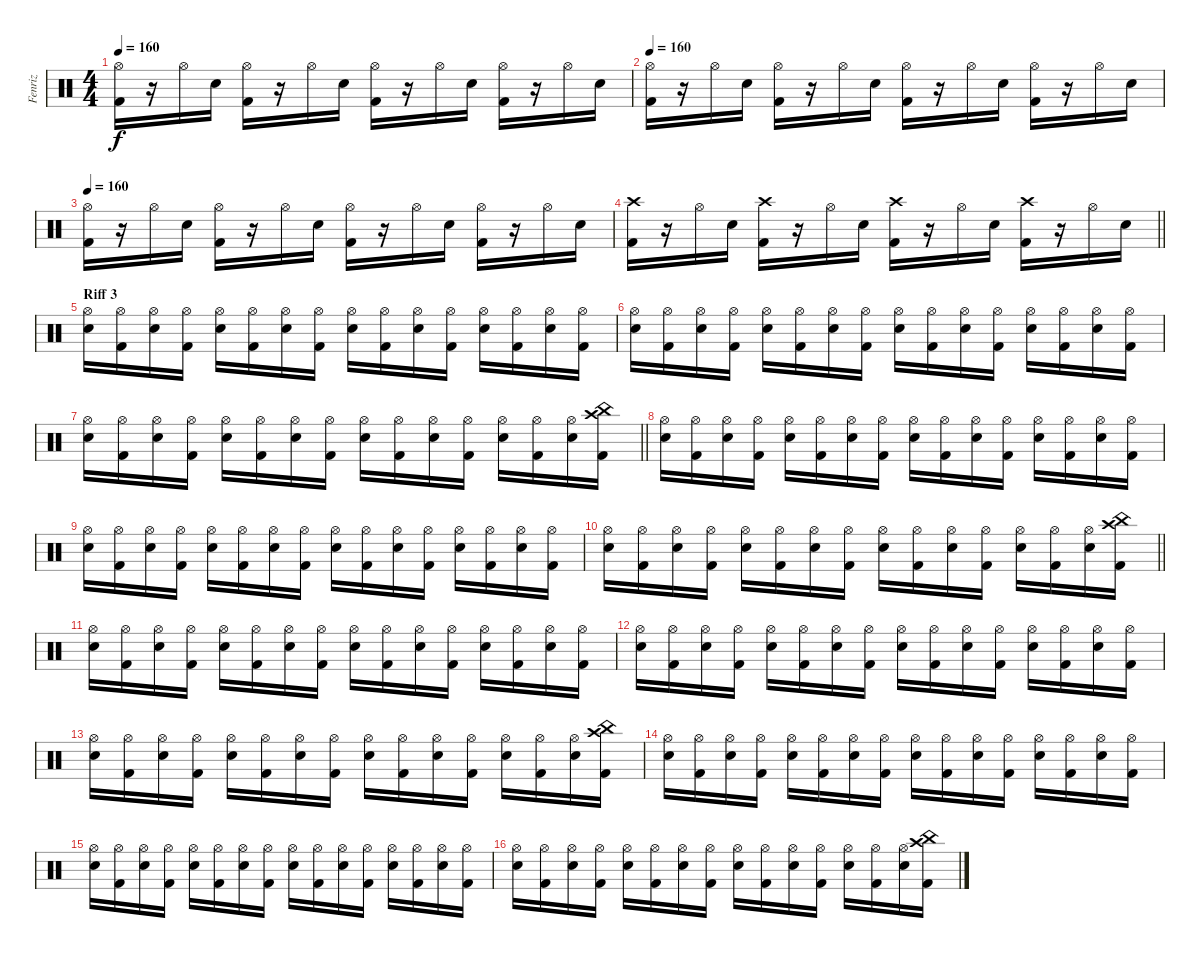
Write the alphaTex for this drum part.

\track ("Fenriz" "Fenriz") {instrument percussion}
\staff {score}
\articulation defaults
\ts (4 4)
\tempo 160
\clef neutral
\ks c
("Hi-Hat (open)" "Kick (hit) 2").16{dy f} r.16 "Hi-Hat (open)".16 "Electric Snare (hit)".16 ("Hi-Hat (open)" "Kick (hit) 2").16 r.16 "Hi-Hat (open)".16 "Electric Snare (hit)".16 ("Hi-Hat (open)" "Kick (hit) 2").16 r.16 "Hi-Hat (open)".16 "Electric Snare (hit)".16 ("Hi-Hat (open)" "Kick (hit) 2").16 r.16 "Hi-Hat (open)".16 "Electric Snare (hit)".16 |
\tempo 160
("Hi-Hat (open)" "Kick (hit) 2").16 r.16 "Hi-Hat (open)".16 "Electric Snare (hit)".16 ("Hi-Hat (open)" "Kick (hit) 2").16 r.16 "Hi-Hat (open)".16 "Electric Snare (hit)".16 ("Hi-Hat (open)" "Kick (hit) 2").16 r.16 "Hi-Hat (open)".16 "Electric Snare (hit)".16 ("Hi-Hat (open)" "Kick (hit) 2").16 r.16 "Hi-Hat (open)".16 "Electric Snare (hit)".16 |
\tempo 160
("Hi-Hat (open)" "Kick (hit) 2").16 r.16 "Hi-Hat (open)".16 "Electric Snare (hit)".16 ("Hi-Hat (open)" "Kick (hit) 2").16 r.16 "Hi-Hat (open)".16 "Electric Snare (hit)".16 ("Hi-Hat (open)" "Kick (hit) 2").16 r.16 "Hi-Hat (open)".16 "Electric Snare (hit)".16 ("Hi-Hat (open)" "Kick (hit) 2").16 r.16 "Hi-Hat (open)".16 "Electric Snare (hit)".16 |
\barLineRight lightlight
("Crash high (hit)" "Kick (hit) 2").16 r.16 "Hi-Hat (open)".16 "Electric Snare (hit)".16 ("Crash high (hit)" "Kick (hit) 2").16 r.16 "Hi-Hat (open)".16 "Electric Snare (hit)".16 ("Crash high (hit)" "Kick (hit) 2").16 r.16 "Hi-Hat (open)".16 "Electric Snare (hit)".16 ("Crash high (hit)" "Kick (hit) 2").16 r.16 "Hi-Hat (open)".16 "Electric Snare (hit)".16 |
\section ("" "Riff 3")
("Hi-Hat (open)" "Electric Snare (hit)").16 ("Hi-Hat (open)" "Kick (hit) 2").16 ("Hi-Hat (open)" "Electric Snare (hit)").16 ("Hi-Hat (open)" "Kick (hit) 2").16 ("Hi-Hat (open)" "Electric Snare (hit)").16 ("Hi-Hat (open)" "Kick (hit) 2").16 ("Hi-Hat (open)" "Electric Snare (hit)").16 ("Hi-Hat (open)" "Kick (hit) 2").16 ("Hi-Hat (open)" "Electric Snare (hit)").16 ("Hi-Hat (open)" "Kick (hit) 2").16 ("Hi-Hat (open)" "Electric Snare (hit)").16 ("Hi-Hat (open)" "Kick (hit) 2").16 ("Hi-Hat (open)" "Electric Snare (hit)").16 ("Hi-Hat (open)" "Kick (hit) 2").16 ("Hi-Hat (open)" "Electric Snare (hit)").16 ("Hi-Hat (open)" "Kick (hit) 2").16 |
("Hi-Hat (open)" "Electric Snare (hit)").16 ("Hi-Hat (open)" "Kick (hit) 2").16 ("Hi-Hat (open)" "Electric Snare (hit)").16 ("Hi-Hat (open)" "Kick (hit) 2").16 ("Hi-Hat (open)" "Electric Snare (hit)").16 ("Hi-Hat (open)" "Kick (hit) 2").16 ("Hi-Hat (open)" "Electric Snare (hit)").16 ("Hi-Hat (open)" "Kick (hit) 2").16 ("Hi-Hat (open)" "Electric Snare (hit)").16 ("Hi-Hat (open)" "Kick (hit) 2").16 ("Hi-Hat (open)" "Electric Snare (hit)").16 ("Hi-Hat (open)" "Kick (hit) 2").16 ("Hi-Hat (open)" "Electric Snare (hit)").16 ("Hi-Hat (open)" "Kick (hit) 2").16 ("Hi-Hat (open)" "Electric Snare (hit)").16 ("Hi-Hat (open)" "Kick (hit) 2").16 |
\barLineRight lightlight
("Hi-Hat (open)" "Electric Snare (hit)").16 ("Hi-Hat (open)" "Kick (hit) 2").16 ("Hi-Hat (open)" "Electric Snare (hit)").16 ("Hi-Hat (open)" "Kick (hit) 2").16 ("Hi-Hat (open)" "Electric Snare (hit)").16 ("Hi-Hat (open)" "Kick (hit) 2").16 ("Hi-Hat (open)" "Electric Snare (hit)").16 ("Hi-Hat (open)" "Kick (hit) 2").16 ("Hi-Hat (open)" "Electric Snare (hit)").16 ("Hi-Hat (open)" "Kick (hit) 2").16 ("Hi-Hat (open)" "Electric Snare (hit)").16 ("Hi-Hat (open)" "Kick (hit) 2").16 ("Hi-Hat (open)" "Electric Snare (hit)").16 ("Hi-Hat (open)" "Kick (hit) 2").16 ("Hi-Hat (open)" "Electric Snare (hit)").16 ("China (hit)" "Crash high (hit)" "Kick (hit) 2").16 |
("Hi-Hat (open)" "Electric Snare (hit)").16 ("Hi-Hat (open)" "Kick (hit) 2").16 ("Hi-Hat (open)" "Electric Snare (hit)").16 ("Hi-Hat (open)" "Kick (hit) 2").16 ("Hi-Hat (open)" "Electric Snare (hit)").16 ("Hi-Hat (open)" "Kick (hit) 2").16 ("Hi-Hat (open)" "Electric Snare (hit)").16 ("Hi-Hat (open)" "Kick (hit) 2").16 ("Hi-Hat (open)" "Electric Snare (hit)").16 ("Hi-Hat (open)" "Kick (hit) 2").16 ("Hi-Hat (open)" "Electric Snare (hit)").16 ("Hi-Hat (open)" "Kick (hit) 2").16 ("Hi-Hat (open)" "Electric Snare (hit)").16 ("Hi-Hat (open)" "Kick (hit) 2").16 ("Hi-Hat (open)" "Electric Snare (hit)").16 ("Hi-Hat (open)" "Kick (hit) 2").16 |
("Hi-Hat (open)" "Electric Snare (hit)").16 ("Hi-Hat (open)" "Kick (hit) 2").16 ("Hi-Hat (open)" "Electric Snare (hit)").16 ("Hi-Hat (open)" "Kick (hit) 2").16 ("Hi-Hat (open)" "Electric Snare (hit)").16 ("Hi-Hat (open)" "Kick (hit) 2").16 ("Hi-Hat (open)" "Electric Snare (hit)").16 ("Hi-Hat (open)" "Kick (hit) 2").16 ("Hi-Hat (open)" "Electric Snare (hit)").16 ("Hi-Hat (open)" "Kick (hit) 2").16 ("Hi-Hat (open)" "Electric Snare (hit)").16 ("Hi-Hat (open)" "Kick (hit) 2").16 ("Hi-Hat (open)" "Electric Snare (hit)").16 ("Hi-Hat (open)" "Kick (hit) 2").16 ("Hi-Hat (open)" "Electric Snare (hit)").16 ("Hi-Hat (open)" "Kick (hit) 2").16 |
\barLineRight lightlight
("Hi-Hat (open)" "Electric Snare (hit)").16 ("Hi-Hat (open)" "Kick (hit) 2").16 ("Hi-Hat (open)" "Electric Snare (hit)").16 ("Hi-Hat (open)" "Kick (hit) 2").16 ("Hi-Hat (open)" "Electric Snare (hit)").16 ("Hi-Hat (open)" "Kick (hit) 2").16 ("Hi-Hat (open)" "Electric Snare (hit)").16 ("Hi-Hat (open)" "Kick (hit) 2").16 ("Hi-Hat (open)" "Electric Snare (hit)").16 ("Hi-Hat (open)" "Kick (hit) 2").16 ("Hi-Hat (open)" "Electric Snare (hit)").16 ("Hi-Hat (open)" "Kick (hit) 2").16 ("Hi-Hat (open)" "Electric Snare (hit)").16 ("Hi-Hat (open)" "Kick (hit) 2").16 ("Hi-Hat (open)" "Electric Snare (hit)").16 ("China (hit)" "Crash high (hit)" "Kick (hit) 2").16 |
("Hi-Hat (open)" "Electric Snare (hit)").16 ("Hi-Hat (open)" "Kick (hit) 2").16 ("Hi-Hat (open)" "Electric Snare (hit)").16 ("Hi-Hat (open)" "Kick (hit) 2").16 ("Hi-Hat (open)" "Electric Snare (hit)").16 ("Hi-Hat (open)" "Kick (hit) 2").16 ("Hi-Hat (open)" "Electric Snare (hit)").16 ("Hi-Hat (open)" "Kick (hit) 2").16 ("Hi-Hat (open)" "Electric Snare (hit)").16 ("Hi-Hat (open)" "Kick (hit) 2").16 ("Hi-Hat (open)" "Electric Snare (hit)").16 ("Hi-Hat (open)" "Kick (hit) 2").16 ("Hi-Hat (open)" "Electric Snare (hit)").16 ("Hi-Hat (open)" "Kick (hit) 2").16 ("Hi-Hat (open)" "Electric Snare (hit)").16 ("Hi-Hat (open)" "Kick (hit) 2").16 |
("Hi-Hat (open)" "Electric Snare (hit)").16 ("Hi-Hat (open)" "Kick (hit) 2").16 ("Hi-Hat (open)" "Electric Snare (hit)").16 ("Hi-Hat (open)" "Kick (hit) 2").16 ("Hi-Hat (open)" "Electric Snare (hit)").16 ("Hi-Hat (open)" "Kick (hit) 2").16 ("Hi-Hat (open)" "Electric Snare (hit)").16 ("Hi-Hat (open)" "Kick (hit) 2").16 ("Hi-Hat (open)" "Electric Snare (hit)").16 ("Hi-Hat (open)" "Kick (hit) 2").16 ("Hi-Hat (open)" "Electric Snare (hit)").16 ("Hi-Hat (open)" "Kick (hit) 2").16 ("Hi-Hat (open)" "Electric Snare (hit)").16 ("Hi-Hat (open)" "Kick (hit) 2").16 ("Hi-Hat (open)" "Electric Snare (hit)").16 ("Hi-Hat (open)" "Kick (hit) 2").16 |
("Hi-Hat (open)" "Electric Snare (hit)").16 ("Hi-Hat (open)" "Kick (hit) 2").16 ("Hi-Hat (open)" "Electric Snare (hit)").16 ("Hi-Hat (open)" "Kick (hit) 2").16 ("Hi-Hat (open)" "Electric Snare (hit)").16 ("Hi-Hat (open)" "Kick (hit) 2").16 ("Hi-Hat (open)" "Electric Snare (hit)").16 ("Hi-Hat (open)" "Kick (hit) 2").16 ("Hi-Hat (open)" "Electric Snare (hit)").16 ("Hi-Hat (open)" "Kick (hit) 2").16 ("Hi-Hat (open)" "Electric Snare (hit)").16 ("Hi-Hat (open)" "Kick (hit) 2").16 ("Hi-Hat (open)" "Electric Snare (hit)").16 ("Hi-Hat (open)" "Kick (hit) 2").16 ("Hi-Hat (open)" "Electric Snare (hit)").16 ("China (hit)" "Crash high (hit)" "Kick (hit) 2").16 |
("Hi-Hat (open)" "Electric Snare (hit)").16 ("Hi-Hat (open)" "Kick (hit) 2").16 ("Hi-Hat (open)" "Electric Snare (hit)").16 ("Hi-Hat (open)" "Kick (hit) 2").16 ("Hi-Hat (open)" "Electric Snare (hit)").16 ("Hi-Hat (open)" "Kick (hit) 2").16 ("Hi-Hat (open)" "Electric Snare (hit)").16 ("Hi-Hat (open)" "Kick (hit) 2").16 ("Hi-Hat (open)" "Electric Snare (hit)").16 ("Hi-Hat (open)" "Kick (hit) 2").16 ("Hi-Hat (open)" "Electric Snare (hit)").16 ("Hi-Hat (open)" "Kick (hit) 2").16 ("Hi-Hat (open)" "Electric Snare (hit)").16 ("Hi-Hat (open)" "Kick (hit) 2").16 ("Hi-Hat (open)" "Electric Snare (hit)").16 ("Hi-Hat (open)" "Kick (hit) 2").16 |
("Hi-Hat (open)" "Electric Snare (hit)").16 ("Hi-Hat (open)" "Kick (hit) 2").16 ("Hi-Hat (open)" "Electric Snare (hit)").16 ("Hi-Hat (open)" "Kick (hit) 2").16 ("Hi-Hat (open)" "Electric Snare (hit)").16 ("Hi-Hat (open)" "Kick (hit) 2").16 ("Hi-Hat (open)" "Electric Snare (hit)").16 ("Hi-Hat (open)" "Kick (hit) 2").16 ("Hi-Hat (open)" "Electric Snare (hit)").16 ("Hi-Hat (open)" "Kick (hit) 2").16 ("Hi-Hat (open)" "Electric Snare (hit)").16 ("Hi-Hat (open)" "Kick (hit) 2").16 ("Hi-Hat (open)" "Electric Snare (hit)").16 ("Hi-Hat (open)" "Kick (hit) 2").16 ("Hi-Hat (open)" "Electric Snare (hit)").16 ("Hi-Hat (open)" "Kick (hit) 2").16 |
("Hi-Hat (open)" "Electric Snare (hit)").16 ("Hi-Hat (open)" "Kick (hit) 2").16 ("Hi-Hat (open)" "Electric Snare (hit)").16 ("Hi-Hat (open)" "Kick (hit) 2").16 ("Hi-Hat (open)" "Electric Snare (hit)").16 ("Hi-Hat (open)" "Kick (hit) 2").16 ("Hi-Hat (open)" "Electric Snare (hit)").16 ("Hi-Hat (open)" "Kick (hit) 2").16 ("Hi-Hat (open)" "Electric Snare (hit)").16 ("Hi-Hat (open)" "Kick (hit) 2").16 ("Hi-Hat (open)" "Electric Snare (hit)").16 ("Hi-Hat (open)" "Kick (hit) 2").16 ("Hi-Hat (open)" "Electric Snare (hit)").16 ("Hi-Hat (open)" "Kick (hit) 2").16 ("Hi-Hat (open)" "Electric Snare (hit)").16 ("China (hit)" "Crash high (hit)" "Kick (hit) 2").16
